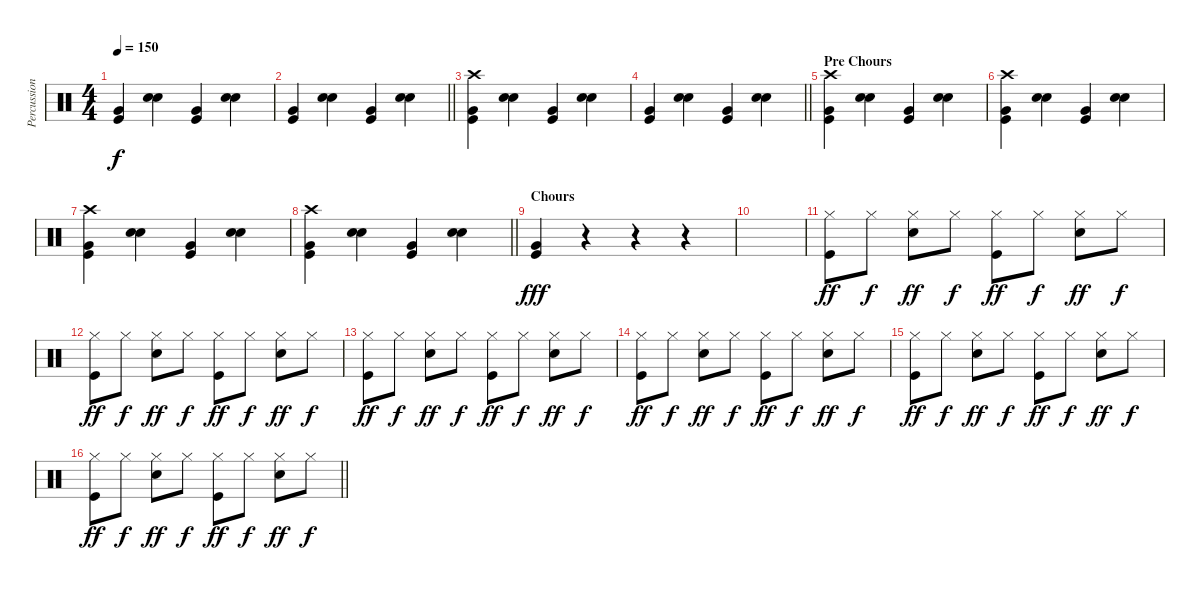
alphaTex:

\track ("Percussion" "Percussion") {instrument percussion}
\staff {score}
\articulation defaults
\ts (4 4)
\tempo 150
\clef neutral
\ks c
("Kick (hit)" "Very Low Tom (hit)").4{dy f} ("Snare (hit) 2" "Snare (hit) 2").4 ("Kick (hit)" "Very Low Tom (hit)").4 ("Snare (hit) 2" "Snare (hit) 2").4 |
\barLineRight lightlight
("Kick (hit)" "Very Low Tom (hit)").4 ("Snare (hit) 2" "Snare (hit) 2").4 ("Kick (hit)" "Very Low Tom (hit)").4 ("Snare (hit) 2" "Snare (hit) 2").4 |
("Kick (hit)" "Very Low Tom (hit)" "Crash high (hit)").4 ("Snare (hit) 2" "Snare (hit) 2").4 ("Kick (hit)" "Very Low Tom (hit)").4 ("Snare (hit) 2" "Snare (hit) 2").4 |
\barLineRight lightlight
("Kick (hit)" "Very Low Tom (hit)").4 ("Snare (hit) 2" "Snare (hit) 2").4 ("Kick (hit)" "Very Low Tom (hit)").4 ("Snare (hit) 2" "Snare (hit) 2").4 |
\section ("" "Pre Chours")
("Kick (hit)" "Very Low Tom (hit)" "Crash high (hit)").4 ("Snare (hit) 2" "Snare (hit) 2").4 ("Kick (hit)" "Very Low Tom (hit)").4 ("Snare (hit) 2" "Snare (hit) 2").4 |
("Kick (hit)" "Very Low Tom (hit)" "Crash high (hit)").4 ("Snare (hit) 2" "Snare (hit) 2").4 ("Kick (hit)" "Very Low Tom (hit)").4 ("Snare (hit) 2" "Snare (hit) 2").4 |
("Kick (hit)" "Very Low Tom (hit)" "Crash high (hit)").4 ("Snare (hit) 2" "Snare (hit) 2").4 ("Kick (hit)" "Very Low Tom (hit)").4 ("Snare (hit) 2" "Snare (hit) 2").4 |
\barLineRight lightlight
("Kick (hit)" "Very Low Tom (hit)" "Crash high (hit)").4 ("Snare (hit) 2" "Snare (hit) 2").4 ("Kick (hit)" "Very Low Tom (hit)").4 ("Snare (hit) 2" "Snare (hit) 2").4 |
\section ("" "Chours")
("Kick (hit)" "Very Low Tom (hit)").4{dy fff} r.4 r.4 r.4 |
|
("Hi-Hat (closed)" "Kick (hit)").8{dy ff} "Hi-Hat (closed)".8{dy f} ("Hi-Hat (closed)" "Snare (hit) 2").8{dy ff} "Hi-Hat (closed)".8{dy f} ("Hi-Hat (closed)" "Kick (hit)").8{dy ff} "Hi-Hat (closed)".8{dy f} ("Hi-Hat (closed)" "Snare (hit) 2").8{dy ff} "Hi-Hat (closed)".8{dy f} |
("Hi-Hat (closed)" "Kick (hit)").8{dy ff} "Hi-Hat (closed)".8{dy f} ("Hi-Hat (closed)" "Snare (hit) 2").8{dy ff} "Hi-Hat (closed)".8{dy f} ("Hi-Hat (closed)" "Kick (hit)").8{dy ff} "Hi-Hat (closed)".8{dy f} ("Hi-Hat (closed)" "Snare (hit) 2").8{dy ff} "Hi-Hat (closed)".8{dy f} |
("Hi-Hat (closed)" "Kick (hit)").8{dy ff} "Hi-Hat (closed)".8{dy f} ("Hi-Hat (closed)" "Snare (hit) 2").8{dy ff} "Hi-Hat (closed)".8{dy f} ("Hi-Hat (closed)" "Kick (hit)").8{dy ff} "Hi-Hat (closed)".8{dy f} ("Hi-Hat (closed)" "Snare (hit) 2").8{dy ff} "Hi-Hat (closed)".8{dy f} |
("Hi-Hat (closed)" "Kick (hit)").8{dy ff} "Hi-Hat (closed)".8{dy f} ("Hi-Hat (closed)" "Snare (hit) 2").8{dy ff} "Hi-Hat (closed)".8{dy f} ("Hi-Hat (closed)" "Kick (hit)").8{dy ff} "Hi-Hat (closed)".8{dy f} ("Hi-Hat (closed)" "Snare (hit) 2").8{dy ff} "Hi-Hat (closed)".8{dy f} |
("Hi-Hat (closed)" "Kick (hit)").8{dy ff} "Hi-Hat (closed)".8{dy f} ("Hi-Hat (closed)" "Snare (hit) 2").8{dy ff} "Hi-Hat (closed)".8{dy f} ("Hi-Hat (closed)" "Kick (hit)").8{dy ff} "Hi-Hat (closed)".8{dy f} ("Hi-Hat (closed)" "Snare (hit) 2").8{dy ff} "Hi-Hat (closed)".8{dy f} |
\barLineRight lightlight
("Hi-Hat (closed)" "Kick (hit)").8{dy ff} "Hi-Hat (closed)".8{dy f} ("Hi-Hat (closed)" "Snare (hit) 2").8{dy ff} "Hi-Hat (closed)".8{dy f} ("Hi-Hat (closed)" "Kick (hit)").8{dy ff} "Hi-Hat (closed)".8{dy f} ("Hi-Hat (closed)" "Snare (hit) 2").8{dy ff} "Hi-Hat (closed)".8{dy f}
